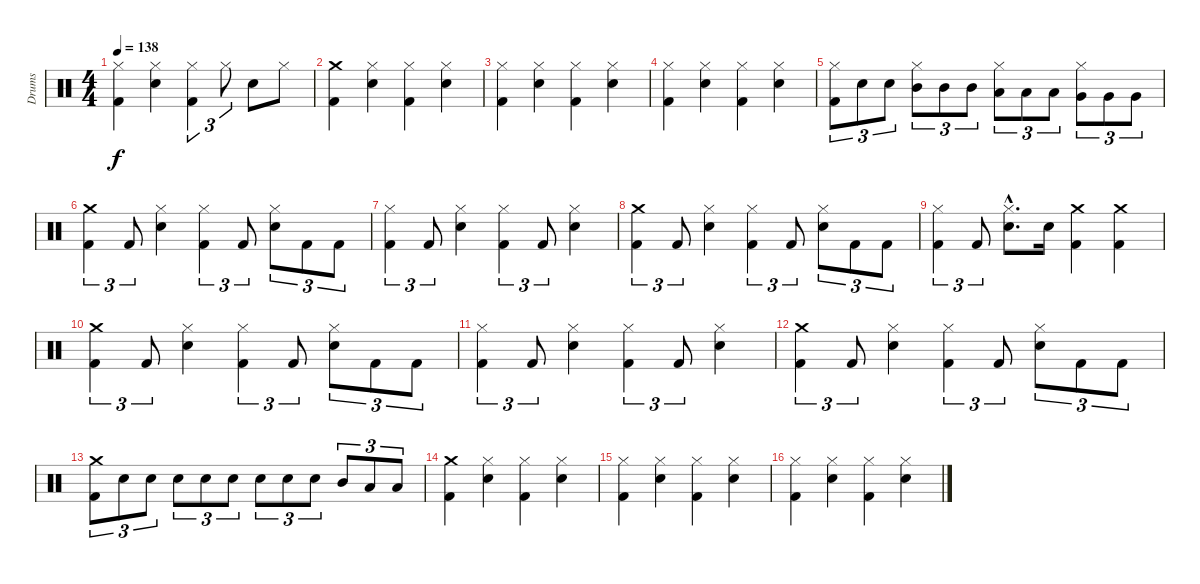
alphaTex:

\track ("Drums" "Drums") {instrument percussion}
\staff {score}
\articulation defaults
\ts (4 4)
\tempo 138
\clef neutral
\ks c
("Hi-Hat (closed)" "Kick (hit) 2").4{dy f} ("Hi-Hat (closed)" "Snare (hit) 2").4 ("Hi-Hat (closed)" "Kick (hit) 2").4{tu (3 2)} "Hi-Hat (closed)".8{tu (3 2)} "Snare (hit) 2".8 "Hi-Hat (closed)".8 |
("Crash medium (hit)" "Kick (hit) 2").4 ("Hi-Hat (closed)" "Snare (hit) 2").4 ("Hi-Hat (closed)" "Kick (hit) 2").4 ("Hi-Hat (closed)" "Snare (hit) 2").4 |
("Hi-Hat (closed)" "Kick (hit) 2").4 ("Hi-Hat (closed)" "Snare (hit) 2").4 ("Hi-Hat (closed)" "Kick (hit) 2").4 ("Hi-Hat (closed)" "Snare (hit) 2").4 |
("Hi-Hat (closed)" "Kick (hit) 2").4 ("Hi-Hat (closed)" "Snare (hit) 2").4 ("Hi-Hat (closed)" "Kick (hit) 2").4 ("Hi-Hat (closed)" "Snare (hit) 2").4 |
("Hi-Hat (closed)" "Kick (hit) 2").8{tu (3 2)} "Snare (hit) 2".8{tu (3 2)} "Snare (hit) 2".8{tu (3 2)} ("Hi-Hat (closed)" "Mid Tom (hit)").8{tu (3 2)} "Mid Tom (hit)".8{tu (3 2)} "Mid Tom (hit)".8{tu (3 2)} ("Hi-Hat (closed)" "Low Tom (hit)").8{tu (3 2)} "Low Tom (hit)".8{tu (3 2)} "Low Tom (hit)".8{tu (3 2)} ("Hi-Hat (closed)" "Very Low Tom (hit)").8{tu (3 2)} "Very Low Tom (hit)".8{tu (3 2)} "Very Low Tom (hit)".8{tu (3 2)} |
("Kick (hit) 2" "Crash medium (hit)").4{tu (3 2)} "Kick (hit) 2".8{tu (3 2)} ("Hi-Hat (closed)" "Snare (hit) 2").4 ("Kick (hit) 2" "Hi-Hat (closed)").4{tu (3 2)} "Kick (hit) 2".8{tu (3 2)} ("Snare (hit) 2" "Hi-Hat (closed)").8{tu (3 2)} "Kick (hit) 2".8{tu (3 2)} "Kick (hit) 2".8{tu (3 2)} |
("Hi-Hat (closed)" "Kick (hit) 2").4{tu (3 2)} "Kick (hit) 2".8{tu (3 2)} ("Hi-Hat (closed)" "Snare (hit) 2").4 ("Kick (hit) 2" "Hi-Hat (closed)").4{tu (3 2)} "Kick (hit) 2".8{tu (3 2)} ("Snare (hit) 2" "Hi-Hat (closed)").4 |
("Kick (hit) 2" "Crash medium (hit)").4{tu (3 2)} "Kick (hit) 2".8{tu (3 2)} ("Hi-Hat (closed)" "Snare (hit) 2").4 ("Kick (hit) 2" "Hi-Hat (closed)").4{tu (3 2)} "Kick (hit) 2".8{tu (3 2)} ("Snare (hit) 2" "Hi-Hat (closed)").8{tu (3 2)} "Kick (hit) 2".8{tu (3 2)} "Kick (hit) 2".8{tu (3 2)} |
("Hi-Hat (closed)" "Kick (hit) 2").4{tu (3 2)} "Kick (hit) 2".8{tu (3 2)} ("Hi-Hat (closed)" "Snare (hit) 2"{hac}).8{d} "Snare (hit) 2".16 ("Crash medium (hit)" "Kick (hit) 2").4 ("Crash medium (hit)" "Kick (hit) 2").4 |
("Kick (hit) 2" "Crash medium (hit)").4{tu (3 2)} "Kick (hit) 2".8{tu (3 2)} ("Hi-Hat (closed)" "Snare (hit) 2").4 ("Kick (hit) 2" "Hi-Hat (closed)").4{tu (3 2)} "Kick (hit) 2".8{tu (3 2)} ("Snare (hit) 2" "Hi-Hat (closed)").8{tu (3 2)} "Kick (hit) 2".8{tu (3 2)} "Kick (hit) 2".8{tu (3 2)} |
("Hi-Hat (closed)" "Kick (hit) 2").4{tu (3 2)} "Kick (hit) 2".8{tu (3 2)} ("Hi-Hat (closed)" "Snare (hit) 2").4 ("Kick (hit) 2" "Hi-Hat (closed)").4{tu (3 2)} "Kick (hit) 2".8{tu (3 2)} ("Snare (hit) 2" "Hi-Hat (closed)").4 |
("Kick (hit) 2" "Crash medium (hit)").4{tu (3 2)} "Kick (hit) 2".8{tu (3 2)} ("Hi-Hat (closed)" "Snare (hit) 2").4 ("Kick (hit) 2" "Hi-Hat (closed)").4{tu (3 2)} "Kick (hit) 2".8{tu (3 2)} ("Snare (hit) 2" "Hi-Hat (closed)").8{tu (3 2)} "Kick (hit) 2".8{tu (3 2)} "Kick (hit) 2".8{tu (3 2)} |
("Kick (hit) 2" "Crash medium (hit)").8{tu (3 2)} "Snare (hit) 2".8{tu (3 2)} "Snare (hit) 2".8{tu (3 2)} "Snare (hit) 2".8{tu (3 2)} "Snare (hit) 2".8{tu (3 2)} "Snare (hit) 2".8{tu (3 2)} "Snare (hit) 2".8{tu (3 2)} "Snare (hit) 2".8{tu (3 2)} "Snare (hit) 2".8{tu (3 2)} "Mid Tom (hit)".8{tu (3 2)} "Low Tom (hit)".8{tu (3 2)} "Low Tom (hit)".8{tu (3 2)} |
("Kick (hit) 2" "Crash medium (hit)").4 ("Hi-Hat (closed)" "Snare (hit) 2").4 ("Hi-Hat (closed)" "Kick (hit) 2").4 ("Hi-Hat (closed)" "Snare (hit) 2").4 |
("Hi-Hat (closed)" "Kick (hit) 2").4 ("Hi-Hat (closed)" "Snare (hit) 2").4 ("Hi-Hat (closed)" "Kick (hit) 2").4 ("Hi-Hat (closed)" "Snare (hit) 2").4 |
("Hi-Hat (closed)" "Kick (hit) 2").4 ("Hi-Hat (closed)" "Snare (hit) 2").4 ("Hi-Hat (closed)" "Kick (hit) 2").4 ("Hi-Hat (closed)" "Snare (hit) 2").4
